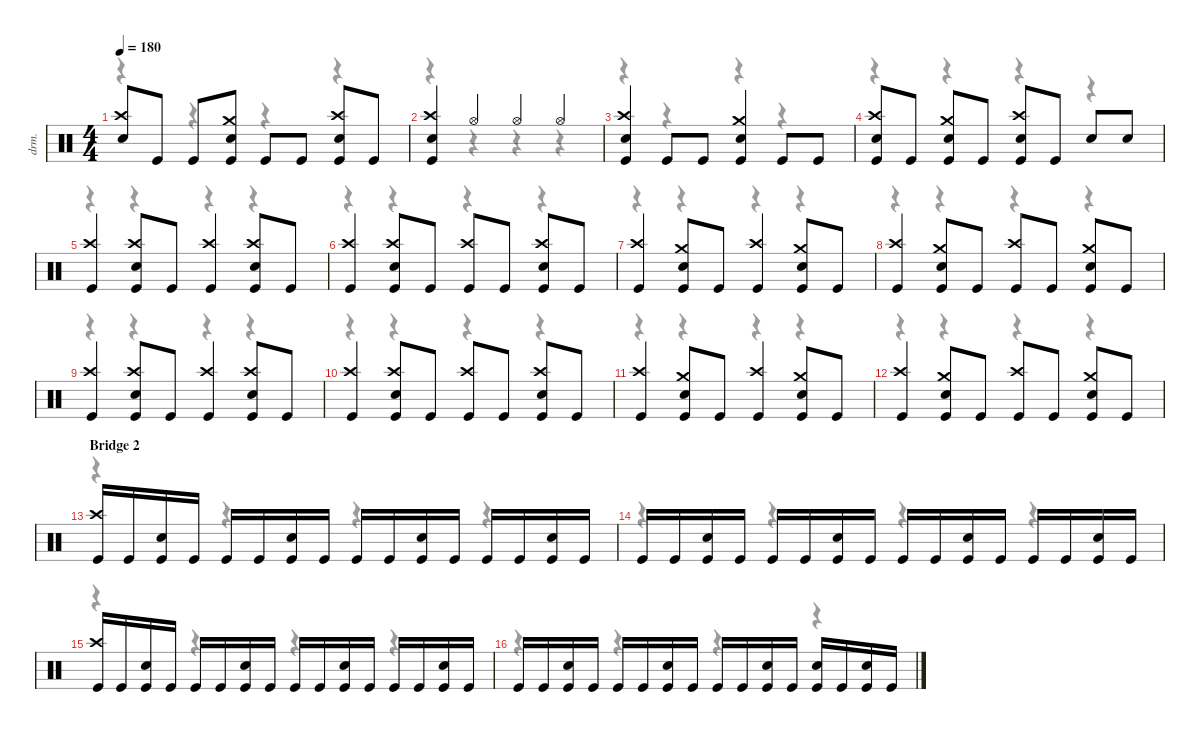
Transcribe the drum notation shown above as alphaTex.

\defaultSystemsLayout 4
\hideDynamics
\bracketExtendMode nobrackets
\track ("Drums" "drm.") {instrument percussion}
\staff {score}
\articulation defaults
\voice
\ts (4 4)
\tempo 180
\clef neutral
\ks c
("Crash high (hit)" "Snare (hit) 2").8{dy f} "Kick (hit)".8 "Kick (hit)".8 ("Crash medium (hit)" "Snare (hit) 2" "Kick (hit)").8 "Kick (hit)".8 "Kick (hit)".8 ("Crash high (hit)" "Snare (hit) 2" "Kick (hit)").8 "Kick (hit)".8 |
("Crash high (hit)" "Snare (hit) 2" "Kick (hit)").4 "Hi-Hat (open)".4 "Hi-Hat (open)".4 "Hi-Hat (open)".4 |
("Crash high (hit)" "Snare (hit) 2" "Kick (hit)").4 "Kick (hit)".8 "Kick (hit)".8 ("Crash medium (hit)" "Snare (hit) 2" "Kick (hit)").4 "Kick (hit)".8 "Kick (hit)".8 |
("Crash high (hit)" "Snare (hit) 2" "Kick (hit)").8 "Kick (hit)".8 ("Crash medium (hit)" "Snare (hit) 2" "Kick (hit)").8 "Kick (hit)".8 ("Crash high (hit)" "Snare (hit) 2" "Kick (hit)").8 "Kick (hit)".8 "Snare (hit) 2".8 "Snare (hit) 2".8 |
("Crash high (hit)" "Kick (hit)").4 ("Crash high (hit)" "Snare (hit) 2" "Kick (hit)").8 "Kick (hit)".8 ("Crash high (hit)" "Kick (hit)").4 ("Crash high (hit)" "Snare (hit) 2" "Kick (hit)").8 "Kick (hit)".8 |
("Crash high (hit)" "Kick (hit)").4 ("Crash high (hit)" "Snare (hit) 2" "Kick (hit)").8 "Kick (hit)".8 ("Crash high (hit)" "Kick (hit)").8 "Kick (hit)".8 ("Crash high (hit)" "Snare (hit) 2" "Kick (hit)").8 "Kick (hit)".8 |
("Crash high (hit)" "Kick (hit)").4 ("Crash medium (hit)" "Snare (hit) 2" "Kick (hit)").8 "Kick (hit)".8 ("Crash high (hit)" "Kick (hit)").4 ("Crash medium (hit)" "Snare (hit) 2" "Kick (hit)").8 "Kick (hit)".8 |
("Crash high (hit)" "Kick (hit)").4 ("Crash medium (hit)" "Snare (hit) 2" "Kick (hit)").8 "Kick (hit)".8 ("Crash high (hit)" "Kick (hit)").8 "Kick (hit)".8 ("Crash medium (hit)" "Snare (hit) 2" "Kick (hit)").8 "Kick (hit)".8 |
("Crash high (hit)" "Kick (hit)").4 ("Crash high (hit)" "Snare (hit) 2" "Kick (hit)").8 "Kick (hit)".8 ("Crash high (hit)" "Kick (hit)").4 ("Crash high (hit)" "Snare (hit) 2" "Kick (hit)").8 "Kick (hit)".8 |
("Crash high (hit)" "Kick (hit)").4 ("Crash high (hit)" "Snare (hit) 2" "Kick (hit)").8 "Kick (hit)".8 ("Crash high (hit)" "Kick (hit)").8 "Kick (hit)".8 ("Crash high (hit)" "Snare (hit) 2" "Kick (hit)").8 "Kick (hit)".8 |
("Crash high (hit)" "Kick (hit)").4 ("Crash medium (hit)" "Snare (hit) 2" "Kick (hit)").8 "Kick (hit)".8 ("Crash high (hit)" "Kick (hit)").4 ("Crash medium (hit)" "Snare (hit) 2" "Kick (hit)").8 "Kick (hit)".8 |
("Crash high (hit)" "Kick (hit)").4 ("Crash medium (hit)" "Snare (hit) 2" "Kick (hit)").8 "Kick (hit)".8 ("Crash high (hit)" "Kick (hit)").8 "Kick (hit)".8 ("Crash medium (hit)" "Snare (hit) 2" "Kick (hit)").8 "Kick (hit)".8 |
\section ("" "Bridge 2")
("Crash high (hit)" "Kick (hit)").16 "Kick (hit)".16 ("Snare (hit) 2" "Kick (hit)").16 "Kick (hit)".16 "Kick (hit)".16 "Kick (hit)".16 ("Snare (hit) 2" "Kick (hit)").16 "Kick (hit)".16 "Kick (hit)".16 "Kick (hit)".16 ("Snare (hit) 2" "Kick (hit)").16 "Kick (hit)".16 "Kick (hit)".16 "Kick (hit)".16 ("Snare (hit) 2" "Kick (hit)").16 "Kick (hit)".16 |
"Kick (hit)".16 "Kick (hit)".16 ("Snare (hit) 2" "Kick (hit)").16 "Kick (hit)".16 "Kick (hit)".16 "Kick (hit)".16 ("Snare (hit) 2" "Kick (hit)").16 "Kick (hit)".16 "Kick (hit)".16 "Kick (hit)".16 ("Snare (hit) 2" "Kick (hit)").16 "Kick (hit)".16 "Kick (hit)".16 "Kick (hit)".16 ("Snare (hit) 2" "Kick (hit)").16 "Kick (hit)".16 |
("Crash high (hit)" "Kick (hit)").16 "Kick (hit)".16 ("Snare (hit) 2" "Kick (hit)").16 "Kick (hit)".16 "Kick (hit)".16 "Kick (hit)".16 ("Snare (hit) 2" "Kick (hit)").16 "Kick (hit)".16 "Kick (hit)".16 "Kick (hit)".16 ("Snare (hit) 2" "Kick (hit)").16 "Kick (hit)".16 "Kick (hit)".16 "Kick (hit)".16 ("Snare (hit) 2" "Kick (hit)").16 "Kick (hit)".16 |
"Kick (hit)".16 "Kick (hit)".16 ("Snare (hit) 2" "Kick (hit)").16 "Kick (hit)".16 "Kick (hit)".16 "Kick (hit)".16 ("Snare (hit) 2" "Kick (hit)").16 "Kick (hit)".16 "Kick (hit)".16 "Kick (hit)".16 ("Snare (hit) 2" "Kick (hit)").16 "Kick (hit)".16 ("Snare (hit) 2" "Kick (hit)").16 "Kick (hit)".16 ("Snare (hit) 2" "Kick (hit)").16 "Kick (hit)".16
\voice
\clef neutral
\ottava regular
\simile none
\ks c
r.4{dy mf} r.4 r.4 r.4 |
r.4 r.4 r.4 r.4 |
r.4 r.4 r.4 r.4 |
r.4 r.4 r.4 r.4 |
r.4 r.4 r.4 r.4 |
r.4 r.4 r.4 r.4 |
r.4 r.4 r.4 r.4 |
r.4 r.4 r.4 r.4 |
r.4 r.4 r.4 r.4 |
r.4 r.4 r.4 r.4 |
r.4 r.4 r.4 r.4 |
r.4 r.4 r.4 r.4 |
r.4 r.4 r.4 r.4 |
r.4 r.4 r.4 r.4 |
r.4 r.4 r.4 r.4 |
r.4 r.4 r.4 r.4
